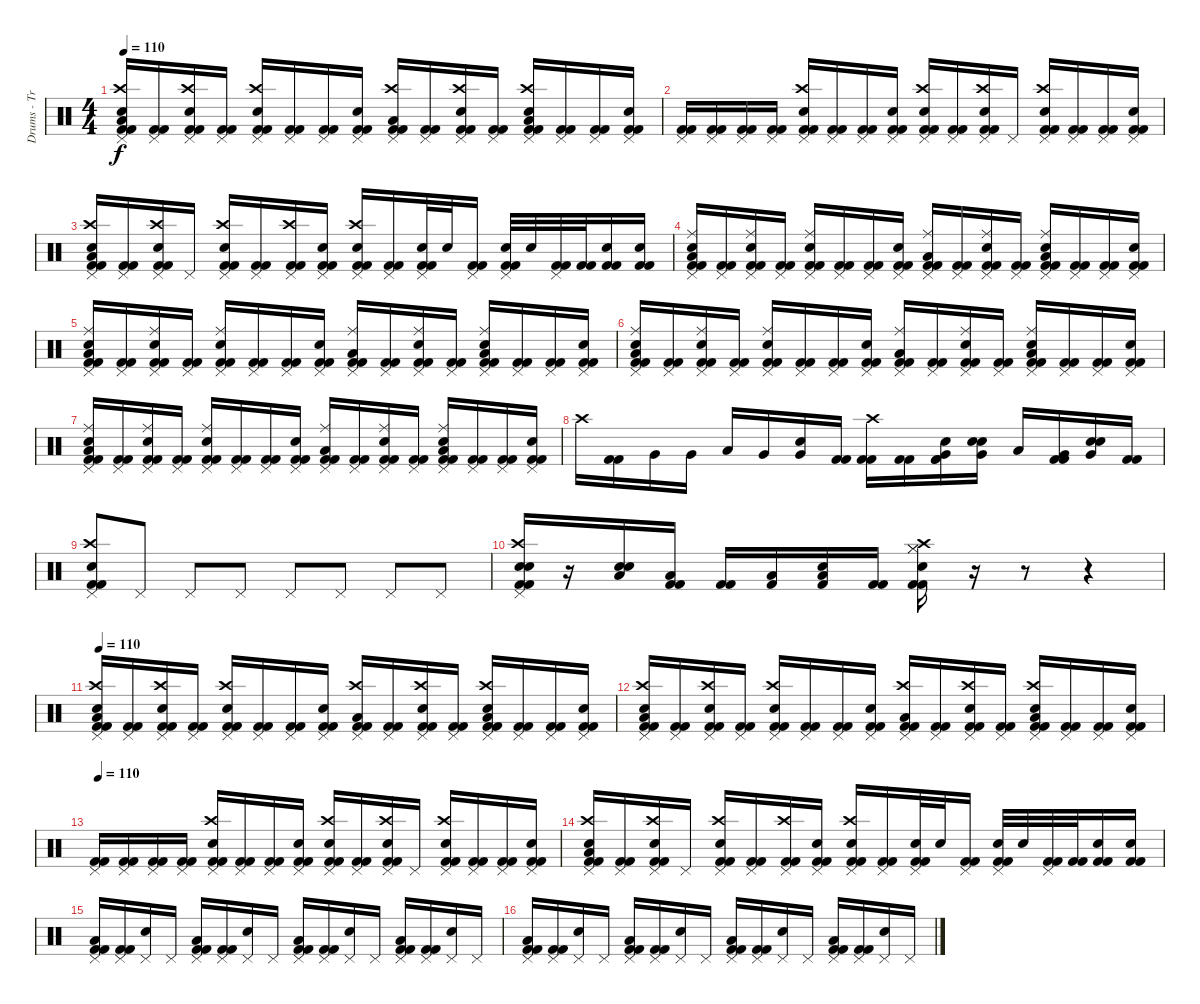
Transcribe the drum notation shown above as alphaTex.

\track ("Drums - Travis Barker" "Drums - Tr") {instrument percussion}
\staff {score}
\articulation defaults
\ts (4 4)
\tempo 110
\clef neutral
\ks c
("Pedal Hi-Hat (hit)" "Crash high (hit)" "Low Tom (hit)" "Electric Snare (hit)" "Kick (hit) 2" "Kick (hit) 2").16{dy f} ("Pedal Hi-Hat (hit)" "Kick (hit) 2" "Kick (hit) 2").16 ("Pedal Hi-Hat (hit)" "Crash high (hit)" "Electric Snare (hit)" "Kick (hit) 2" "Kick (hit) 2").16 ("Pedal Hi-Hat (hit)" "Kick (hit) 2" "Kick (hit) 2").16 ("Pedal Hi-Hat (hit)" "Crash high (hit)" "Electric Snare (hit)" "Kick (hit) 2" "Kick (hit) 2").16 ("Pedal Hi-Hat (hit)" "Kick (hit) 2" "Kick (hit) 2").16 ("Pedal Hi-Hat (hit)" "Kick (hit) 2" "Kick (hit) 2").16 ("Pedal Hi-Hat (hit)" "Electric Snare (hit)" "Kick (hit) 2" "Kick (hit) 2").16 ("Pedal Hi-Hat (hit)" "Crash high (hit)" "Low Tom (hit)" "Kick (hit) 2" "Kick (hit) 2").16 ("Pedal Hi-Hat (hit)" "Kick (hit) 2" "Kick (hit) 2").16 ("Pedal Hi-Hat (hit)" "Crash high (hit)" "Electric Snare (hit)" "Kick (hit) 2" "Kick (hit) 2").16 ("Pedal Hi-Hat (hit)" "Kick (hit) 2" "Kick (hit) 2").16 ("Pedal Hi-Hat (hit)" "Crash high (hit)" "Low Tom (hit)" "Electric Snare (hit)" "Kick (hit) 2" "Kick (hit) 2").16 ("Pedal Hi-Hat (hit)" "Kick (hit) 2" "Kick (hit) 2").16 ("Pedal Hi-Hat (hit)" "Kick (hit) 2" "Kick (hit) 2").16 ("Pedal Hi-Hat (hit)" "Electric Snare (hit)" "Kick (hit) 2" "Kick (hit) 2").16 |
("Pedal Hi-Hat (hit)" "Kick (hit) 2" "Kick (hit) 2").16 ("Pedal Hi-Hat (hit)" "Kick (hit) 2" "Kick (hit) 2").16 ("Pedal Hi-Hat (hit)" "Kick (hit) 2" "Kick (hit) 2").16 ("Pedal Hi-Hat (hit)" "Kick (hit) 2" "Kick (hit) 2").16 ("Pedal Hi-Hat (hit)" "Crash high (hit)" "Electric Snare (hit)" "Kick (hit) 2" "Kick (hit) 2").16 ("Pedal Hi-Hat (hit)" "Kick (hit) 2" "Kick (hit) 2").16 ("Pedal Hi-Hat (hit)" "Kick (hit) 2" "Kick (hit) 2").16 ("Pedal Hi-Hat (hit)" "Electric Snare (hit)" "Kick (hit) 2" "Kick (hit) 2").16 ("Pedal Hi-Hat (hit)" "Crash high (hit)" "Electric Snare (hit)" "Kick (hit) 2" "Kick (hit) 2").16 ("Pedal Hi-Hat (hit)" "Kick (hit) 2" "Kick (hit) 2").16 ("Pedal Hi-Hat (hit)" "Crash high (hit)" "Electric Snare (hit)" "Kick (hit) 2" "Kick (hit) 2").16 "Pedal Hi-Hat (hit)".16 ("Pedal Hi-Hat (hit)" "Crash high (hit)" "Electric Snare (hit)" "Kick (hit) 2" "Kick (hit) 2").16 ("Pedal Hi-Hat (hit)" "Kick (hit) 2" "Kick (hit) 2").16 ("Pedal Hi-Hat (hit)" "Kick (hit) 2" "Kick (hit) 2").16 ("Pedal Hi-Hat (hit)" "Electric Snare (hit)" "Kick (hit) 2" "Kick (hit) 2").16 |
("Pedal Hi-Hat (hit)" "Crash high (hit)" "Low Tom (hit)" "Electric Snare (hit)" "Kick (hit) 2" "Kick (hit) 2").16 ("Pedal Hi-Hat (hit)" "Kick (hit) 2" "Kick (hit) 2").16 ("Pedal Hi-Hat (hit)" "Crash high (hit)" "Electric Snare (hit)" "Kick (hit) 2" "Kick (hit) 2").16 "Pedal Hi-Hat (hit)".16 ("Pedal Hi-Hat (hit)" "Crash high (hit)" "Electric Snare (hit)" "Kick (hit) 2" "Kick (hit) 2").16 ("Pedal Hi-Hat (hit)" "Kick (hit) 2" "Kick (hit) 2").16 ("Pedal Hi-Hat (hit)" "Crash high (hit)" "Kick (hit) 2" "Kick (hit) 2").16 ("Pedal Hi-Hat (hit)" "Electric Snare (hit)" "Kick (hit) 2" "Kick (hit) 2").16 ("Pedal Hi-Hat (hit)" "Crash high (hit)" "Electric Snare (hit)" "Kick (hit) 2" "Kick (hit) 2").16 ("Pedal Hi-Hat (hit)" "Kick (hit) 2" "Kick (hit) 2").16 ("Pedal Hi-Hat (hit)" "Electric Snare (hit)" "Kick (hit) 2" "Kick (hit) 2").32 "Electric Snare (hit)".32 ("Pedal Hi-Hat (hit)" "Kick (hit) 2" "Kick (hit) 2").16 ("Pedal Hi-Hat (hit)" "Electric Snare (hit)" "Kick (hit) 2" "Kick (hit) 2").32 "Electric Snare (hit)".32 ("Pedal Hi-Hat (hit)" "Kick (hit) 2" "Kick (hit) 2").32 ("Kick (hit) 2" "Kick (hit) 2").32 ("Electric Snare (hit)" "Kick (hit) 2" "Kick (hit) 2").16 ("Electric Snare (hit)" "Kick (hit) 2" "Kick (hit) 2").16 |
("Pedal Hi-Hat (hit)" "Ride (middle)" "Low Tom (hit)" "Electric Snare (hit)" "Kick (hit) 2" "Kick (hit) 2").16 ("Pedal Hi-Hat (hit)" "Kick (hit) 2" "Kick (hit) 2").16 ("Pedal Hi-Hat (hit)" "Ride (middle)" "Electric Snare (hit)" "Kick (hit) 2" "Kick (hit) 2").16 ("Pedal Hi-Hat (hit)" "Kick (hit) 2" "Kick (hit) 2").16 ("Pedal Hi-Hat (hit)" "Ride (middle)" "Electric Snare (hit)" "Kick (hit) 2" "Kick (hit) 2").16 ("Pedal Hi-Hat (hit)" "Kick (hit) 2" "Kick (hit) 2").16 ("Pedal Hi-Hat (hit)" "Kick (hit) 2" "Kick (hit) 2").16 ("Pedal Hi-Hat (hit)" "Electric Snare (hit)" "Kick (hit) 2" "Kick (hit) 2").16 ("Pedal Hi-Hat (hit)" "Ride (middle)" "Low Tom (hit)" "Kick (hit) 2" "Kick (hit) 2").16 ("Pedal Hi-Hat (hit)" "Kick (hit) 2" "Kick (hit) 2").16 ("Pedal Hi-Hat (hit)" "Ride (middle)" "Electric Snare (hit)" "Kick (hit) 2" "Kick (hit) 2").16 ("Pedal Hi-Hat (hit)" "Kick (hit) 2" "Kick (hit) 2").16 ("Pedal Hi-Hat (hit)" "Ride (middle)" "Low Tom (hit)" "Electric Snare (hit)" "Kick (hit) 2" "Kick (hit) 2").16 ("Pedal Hi-Hat (hit)" "Kick (hit) 2" "Kick (hit) 2").16 ("Pedal Hi-Hat (hit)" "Kick (hit) 2" "Kick (hit) 2").16 ("Pedal Hi-Hat (hit)" "Electric Snare (hit)" "Kick (hit) 2" "Kick (hit) 2").16 |
("Pedal Hi-Hat (hit)" "Ride (middle)" "Low Tom (hit)" "Electric Snare (hit)" "Kick (hit) 2" "Kick (hit) 2").16 ("Pedal Hi-Hat (hit)" "Kick (hit) 2" "Kick (hit) 2").16 ("Pedal Hi-Hat (hit)" "Ride (middle)" "Electric Snare (hit)" "Kick (hit) 2" "Kick (hit) 2").16 ("Pedal Hi-Hat (hit)" "Kick (hit) 2" "Kick (hit) 2").16 ("Pedal Hi-Hat (hit)" "Ride (middle)" "Electric Snare (hit)" "Kick (hit) 2" "Kick (hit) 2").16 ("Pedal Hi-Hat (hit)" "Kick (hit) 2" "Kick (hit) 2").16 ("Pedal Hi-Hat (hit)" "Kick (hit) 2" "Kick (hit) 2").16 ("Pedal Hi-Hat (hit)" "Electric Snare (hit)" "Kick (hit) 2" "Kick (hit) 2").16 ("Pedal Hi-Hat (hit)" "Ride (middle)" "Low Tom (hit)" "Kick (hit) 2" "Kick (hit) 2").16 ("Pedal Hi-Hat (hit)" "Kick (hit) 2" "Kick (hit) 2").16 ("Pedal Hi-Hat (hit)" "Ride (middle)" "Electric Snare (hit)" "Kick (hit) 2" "Kick (hit) 2").16 ("Pedal Hi-Hat (hit)" "Kick (hit) 2" "Kick (hit) 2").16 ("Pedal Hi-Hat (hit)" "Ride (middle)" "Low Tom (hit)" "Electric Snare (hit)" "Kick (hit) 2" "Kick (hit) 2").16 ("Pedal Hi-Hat (hit)" "Kick (hit) 2" "Kick (hit) 2").16 ("Pedal Hi-Hat (hit)" "Kick (hit) 2" "Kick (hit) 2").16 ("Pedal Hi-Hat (hit)" "Electric Snare (hit)" "Kick (hit) 2" "Kick (hit) 2").16 |
("Pedal Hi-Hat (hit)" "Ride (middle)" "Low Tom (hit)" "Electric Snare (hit)" "Kick (hit) 2" "Kick (hit) 2").16 ("Pedal Hi-Hat (hit)" "Kick (hit) 2" "Kick (hit) 2").16 ("Pedal Hi-Hat (hit)" "Ride (middle)" "Electric Snare (hit)" "Kick (hit) 2" "Kick (hit) 2").16 ("Pedal Hi-Hat (hit)" "Kick (hit) 2" "Kick (hit) 2").16 ("Pedal Hi-Hat (hit)" "Ride (middle)" "Electric Snare (hit)" "Kick (hit) 2" "Kick (hit) 2").16 ("Pedal Hi-Hat (hit)" "Kick (hit) 2" "Kick (hit) 2").16 ("Pedal Hi-Hat (hit)" "Kick (hit) 2" "Kick (hit) 2").16 ("Pedal Hi-Hat (hit)" "Electric Snare (hit)" "Kick (hit) 2" "Kick (hit) 2").16 ("Pedal Hi-Hat (hit)" "Ride (middle)" "Low Tom (hit)" "Kick (hit) 2" "Kick (hit) 2").16 ("Pedal Hi-Hat (hit)" "Kick (hit) 2" "Kick (hit) 2").16 ("Pedal Hi-Hat (hit)" "Ride (middle)" "Electric Snare (hit)" "Kick (hit) 2" "Kick (hit) 2").16 ("Pedal Hi-Hat (hit)" "Kick (hit) 2" "Kick (hit) 2").16 ("Pedal Hi-Hat (hit)" "Ride (middle)" "Low Tom (hit)" "Electric Snare (hit)" "Kick (hit) 2" "Kick (hit) 2").16 ("Pedal Hi-Hat (hit)" "Kick (hit) 2" "Kick (hit) 2").16 ("Pedal Hi-Hat (hit)" "Kick (hit) 2" "Kick (hit) 2").16 ("Pedal Hi-Hat (hit)" "Electric Snare (hit)" "Kick (hit) 2" "Kick (hit) 2").16 |
("Pedal Hi-Hat (hit)" "Ride (middle)" "Low Tom (hit)" "Electric Snare (hit)" "Kick (hit) 2" "Kick (hit) 2").16 ("Pedal Hi-Hat (hit)" "Kick (hit) 2" "Kick (hit) 2").16 ("Pedal Hi-Hat (hit)" "Ride (middle)" "Electric Snare (hit)" "Kick (hit) 2" "Kick (hit) 2").16 ("Pedal Hi-Hat (hit)" "Kick (hit) 2" "Kick (hit) 2").16 ("Pedal Hi-Hat (hit)" "Ride (middle)" "Electric Snare (hit)" "Kick (hit) 2" "Kick (hit) 2").16 ("Pedal Hi-Hat (hit)" "Kick (hit) 2" "Kick (hit) 2").16 ("Pedal Hi-Hat (hit)" "Kick (hit) 2" "Kick (hit) 2").16 ("Pedal Hi-Hat (hit)" "Electric Snare (hit)" "Kick (hit) 2" "Kick (hit) 2").16 ("Pedal Hi-Hat (hit)" "Ride (middle)" "Low Tom (hit)" "Kick (hit) 2" "Kick (hit) 2").16 ("Pedal Hi-Hat (hit)" "Kick (hit) 2" "Kick (hit) 2").16 ("Pedal Hi-Hat (hit)" "Ride (middle)" "Electric Snare (hit)" "Kick (hit) 2" "Kick (hit) 2").16 ("Pedal Hi-Hat (hit)" "Kick (hit) 2" "Kick (hit) 2").16 ("Pedal Hi-Hat (hit)" "Ride (middle)" "Low Tom (hit)" "Electric Snare (hit)" "Kick (hit) 2" "Kick (hit) 2").16 ("Pedal Hi-Hat (hit)" "Kick (hit) 2" "Kick (hit) 2").16 ("Pedal Hi-Hat (hit)" "Kick (hit) 2" "Kick (hit) 2").16 ("Pedal Hi-Hat (hit)" "Electric Snare (hit)" "Kick (hit) 2" "Kick (hit) 2").16 |
"Crash high (hit)".16 ("Kick (hit) 2" "Kick (hit) 2").16 "Very Low Tom (hit)".16 "Very Low Tom (hit)".16 "Low Tom (hit)".16 "Very Low Tom (hit)".16 ("Very Low Tom (hit)" "Electric Snare (hit)").16 ("Kick (hit) 2" "Kick (hit) 2").16 ("Crash high (hit)" "Kick (hit) 2" "Kick (hit) 2").16 ("Kick (hit) 2" "Kick (hit) 2").16 ("Very Low Tom (hit)" "Electric Snare (hit)" "Kick (hit) 2" "Kick (hit) 2").16 ("Very Low Tom (hit)" "Electric Snare (hit)" "Electric Snare (hit)").16 "Low Tom (hit)".16 ("Very Low Tom (hit)" "Kick (hit) 2" "Kick (hit) 2").16 ("Very Low Tom (hit)" "Electric Snare (hit)" "Electric Snare (hit)").16 ("Kick (hit) 2" "Kick (hit) 2").16 |
("Pedal Hi-Hat (hit)" "Crash high (hit)" "Electric Snare (hit)" "Kick (hit) 2" "Kick (hit) 2").8 "Pedal Hi-Hat (hit)".8 "Pedal Hi-Hat (hit)".8 "Pedal Hi-Hat (hit)".8 "Pedal Hi-Hat (hit)".8 "Pedal Hi-Hat (hit)".8 "Pedal Hi-Hat (hit)".8 "Pedal Hi-Hat (hit)".8 |
("Pedal Hi-Hat (hit)" "Crash high (hit)" "Electric Snare (hit)" "Electric Snare (hit)" "Kick (hit) 2" "Kick (hit) 2").16 r.16 ("Low Tom (hit)" "Electric Snare (hit)" "Electric Snare (hit)").16 ("Low Tom (hit)" "Kick (hit) 2" "Kick (hit) 2").16 ("Kick (hit) 2" "Kick (hit) 2").16 ("Low Tom (hit)" "Kick (hit) 2").16 ("Low Tom (hit)" "Kick (hit) 2" "Electric Snare (hit)").16 ("Kick (hit) 2" "Kick (hit) 2").16 ("Hi-Hat (closed)" "Hi-Hat (closed)" "Crash high (hit)" "Kick (hit) 2" "Electric Snare (hit)" "Kick (hit) 2").16 r.16 r.8 r.4 |
\tempo 110
("Pedal Hi-Hat (hit)" "Crash high (hit)" "Low Tom (hit)" "Electric Snare (hit)" "Kick (hit) 2" "Kick (hit) 2").16 ("Pedal Hi-Hat (hit)" "Kick (hit) 2" "Kick (hit) 2").16 ("Pedal Hi-Hat (hit)" "Crash high (hit)" "Electric Snare (hit)" "Kick (hit) 2" "Kick (hit) 2").16 ("Pedal Hi-Hat (hit)" "Kick (hit) 2" "Kick (hit) 2").16 ("Pedal Hi-Hat (hit)" "Crash high (hit)" "Electric Snare (hit)" "Kick (hit) 2" "Kick (hit) 2").16 ("Pedal Hi-Hat (hit)" "Kick (hit) 2" "Kick (hit) 2").16 ("Pedal Hi-Hat (hit)" "Kick (hit) 2" "Kick (hit) 2").16 ("Pedal Hi-Hat (hit)" "Electric Snare (hit)" "Kick (hit) 2" "Kick (hit) 2").16 ("Pedal Hi-Hat (hit)" "Crash high (hit)" "Low Tom (hit)" "Kick (hit) 2" "Kick (hit) 2").16 ("Pedal Hi-Hat (hit)" "Kick (hit) 2" "Kick (hit) 2").16 ("Pedal Hi-Hat (hit)" "Crash high (hit)" "Electric Snare (hit)" "Kick (hit) 2" "Kick (hit) 2").16 ("Pedal Hi-Hat (hit)" "Kick (hit) 2" "Kick (hit) 2").16 ("Pedal Hi-Hat (hit)" "Crash high (hit)" "Low Tom (hit)" "Electric Snare (hit)" "Kick (hit) 2" "Kick (hit) 2").16 ("Pedal Hi-Hat (hit)" "Kick (hit) 2" "Kick (hit) 2").16 ("Pedal Hi-Hat (hit)" "Kick (hit) 2" "Kick (hit) 2").16 ("Pedal Hi-Hat (hit)" "Electric Snare (hit)" "Kick (hit) 2" "Kick (hit) 2").16 |
("Pedal Hi-Hat (hit)" "Crash high (hit)" "Low Tom (hit)" "Electric Snare (hit)" "Kick (hit) 2" "Kick (hit) 2").16 ("Pedal Hi-Hat (hit)" "Kick (hit) 2" "Kick (hit) 2").16 ("Pedal Hi-Hat (hit)" "Crash high (hit)" "Electric Snare (hit)" "Kick (hit) 2" "Kick (hit) 2").16 ("Pedal Hi-Hat (hit)" "Kick (hit) 2" "Kick (hit) 2").16 ("Pedal Hi-Hat (hit)" "Crash high (hit)" "Electric Snare (hit)" "Kick (hit) 2" "Kick (hit) 2").16 ("Pedal Hi-Hat (hit)" "Kick (hit) 2" "Kick (hit) 2").16 ("Pedal Hi-Hat (hit)" "Kick (hit) 2" "Kick (hit) 2").16 ("Pedal Hi-Hat (hit)" "Electric Snare (hit)" "Kick (hit) 2" "Kick (hit) 2").16 ("Pedal Hi-Hat (hit)" "Crash high (hit)" "Low Tom (hit)" "Kick (hit) 2" "Kick (hit) 2").16 ("Pedal Hi-Hat (hit)" "Kick (hit) 2" "Kick (hit) 2").16 ("Pedal Hi-Hat (hit)" "Crash high (hit)" "Electric Snare (hit)" "Kick (hit) 2" "Kick (hit) 2").16 ("Pedal Hi-Hat (hit)" "Kick (hit) 2" "Kick (hit) 2").16 ("Pedal Hi-Hat (hit)" "Crash high (hit)" "Low Tom (hit)" "Electric Snare (hit)" "Kick (hit) 2" "Kick (hit) 2").16 ("Pedal Hi-Hat (hit)" "Kick (hit) 2" "Kick (hit) 2").16 ("Pedal Hi-Hat (hit)" "Kick (hit) 2" "Kick (hit) 2").16 ("Pedal Hi-Hat (hit)" "Electric Snare (hit)" "Kick (hit) 2" "Kick (hit) 2").16 |
\tempo 110
("Pedal Hi-Hat (hit)" "Kick (hit) 2" "Kick (hit) 2").16 ("Pedal Hi-Hat (hit)" "Kick (hit) 2" "Kick (hit) 2").16 ("Pedal Hi-Hat (hit)" "Kick (hit) 2" "Kick (hit) 2").16 ("Pedal Hi-Hat (hit)" "Kick (hit) 2" "Kick (hit) 2").16 ("Pedal Hi-Hat (hit)" "Crash high (hit)" "Electric Snare (hit)" "Kick (hit) 2" "Kick (hit) 2").16 ("Pedal Hi-Hat (hit)" "Kick (hit) 2" "Kick (hit) 2").16 ("Pedal Hi-Hat (hit)" "Kick (hit) 2" "Kick (hit) 2").16 ("Pedal Hi-Hat (hit)" "Electric Snare (hit)" "Kick (hit) 2" "Kick (hit) 2").16 ("Pedal Hi-Hat (hit)" "Crash high (hit)" "Electric Snare (hit)" "Kick (hit) 2" "Kick (hit) 2").16 ("Pedal Hi-Hat (hit)" "Kick (hit) 2" "Kick (hit) 2").16 ("Pedal Hi-Hat (hit)" "Crash high (hit)" "Electric Snare (hit)" "Kick (hit) 2" "Kick (hit) 2").16 "Pedal Hi-Hat (hit)".16 ("Pedal Hi-Hat (hit)" "Crash high (hit)" "Electric Snare (hit)" "Kick (hit) 2" "Kick (hit) 2").16 ("Pedal Hi-Hat (hit)" "Kick (hit) 2" "Kick (hit) 2").16 ("Pedal Hi-Hat (hit)" "Kick (hit) 2" "Kick (hit) 2").16 ("Pedal Hi-Hat (hit)" "Electric Snare (hit)" "Kick (hit) 2" "Kick (hit) 2").16 |
("Pedal Hi-Hat (hit)" "Crash high (hit)" "Low Tom (hit)" "Electric Snare (hit)" "Kick (hit) 2" "Kick (hit) 2").16 ("Pedal Hi-Hat (hit)" "Kick (hit) 2" "Kick (hit) 2").16 ("Pedal Hi-Hat (hit)" "Crash high (hit)" "Electric Snare (hit)" "Kick (hit) 2" "Kick (hit) 2").16 "Pedal Hi-Hat (hit)".16 ("Pedal Hi-Hat (hit)" "Crash high (hit)" "Electric Snare (hit)" "Kick (hit) 2" "Kick (hit) 2").16 ("Pedal Hi-Hat (hit)" "Kick (hit) 2" "Kick (hit) 2").16 ("Pedal Hi-Hat (hit)" "Crash high (hit)" "Kick (hit) 2" "Kick (hit) 2").16 ("Pedal Hi-Hat (hit)" "Electric Snare (hit)" "Kick (hit) 2" "Kick (hit) 2").16 ("Pedal Hi-Hat (hit)" "Crash high (hit)" "Electric Snare (hit)" "Kick (hit) 2" "Kick (hit) 2").16 ("Pedal Hi-Hat (hit)" "Kick (hit) 2" "Kick (hit) 2").16 ("Pedal Hi-Hat (hit)" "Electric Snare (hit)" "Kick (hit) 2" "Kick (hit) 2").32 "Electric Snare (hit)".32 ("Pedal Hi-Hat (hit)" "Kick (hit) 2" "Kick (hit) 2").16 ("Pedal Hi-Hat (hit)" "Electric Snare (hit)" "Kick (hit) 2" "Kick (hit) 2").32 "Electric Snare (hit)".32 ("Pedal Hi-Hat (hit)" "Kick (hit) 2" "Kick (hit) 2").32 ("Kick (hit) 2" "Kick (hit) 2").32 ("Electric Snare (hit)" "Kick (hit) 2" "Kick (hit) 2").16 ("Electric Snare (hit)" "Kick (hit) 2" "Kick (hit) 2").16 |
("Pedal Hi-Hat (hit)" "Low Tom (hit)" "Kick (hit) 2" "Kick (hit) 2").16 ("Pedal Hi-Hat (hit)" "Kick (hit) 2" "Kick (hit) 2").16 ("Pedal Hi-Hat (hit)" "Electric Snare (hit)").16 "Pedal Hi-Hat (hit)".16 ("Pedal Hi-Hat (hit)" "Low Tom (hit)" "Kick (hit) 2" "Kick (hit) 2").16 ("Pedal Hi-Hat (hit)" "Kick (hit) 2" "Kick (hit) 2").16 ("Pedal Hi-Hat (hit)" "Electric Snare (hit)").16 "Pedal Hi-Hat (hit)".16 ("Pedal Hi-Hat (hit)" "Low Tom (hit)" "Kick (hit) 2" "Kick (hit) 2").16 ("Pedal Hi-Hat (hit)" "Kick (hit) 2" "Kick (hit) 2").16 ("Pedal Hi-Hat (hit)" "Electric Snare (hit)").16 "Pedal Hi-Hat (hit)".16 ("Pedal Hi-Hat (hit)" "Low Tom (hit)" "Kick (hit) 2" "Kick (hit) 2").16 ("Pedal Hi-Hat (hit)" "Kick (hit) 2" "Kick (hit) 2").16 ("Pedal Hi-Hat (hit)" "Electric Snare (hit)").16 "Pedal Hi-Hat (hit)".16 |
("Pedal Hi-Hat (hit)" "Low Tom (hit)" "Kick (hit) 2" "Kick (hit) 2").16 ("Pedal Hi-Hat (hit)" "Kick (hit) 2" "Kick (hit) 2").16 ("Pedal Hi-Hat (hit)" "Electric Snare (hit)").16 "Pedal Hi-Hat (hit)".16 ("Pedal Hi-Hat (hit)" "Low Tom (hit)" "Kick (hit) 2" "Kick (hit) 2").16 ("Pedal Hi-Hat (hit)" "Kick (hit) 2" "Kick (hit) 2").16 ("Pedal Hi-Hat (hit)" "Electric Snare (hit)").16 "Pedal Hi-Hat (hit)".16 ("Pedal Hi-Hat (hit)" "Low Tom (hit)" "Kick (hit) 2" "Kick (hit) 2").16 ("Pedal Hi-Hat (hit)" "Kick (hit) 2" "Kick (hit) 2").16 ("Pedal Hi-Hat (hit)" "Electric Snare (hit)").16 "Pedal Hi-Hat (hit)".16 ("Pedal Hi-Hat (hit)" "Low Tom (hit)" "Kick (hit) 2" "Kick (hit) 2").16 ("Pedal Hi-Hat (hit)" "Kick (hit) 2" "Kick (hit) 2").16 ("Pedal Hi-Hat (hit)" "Electric Snare (hit)").16 "Pedal Hi-Hat (hit)".16
